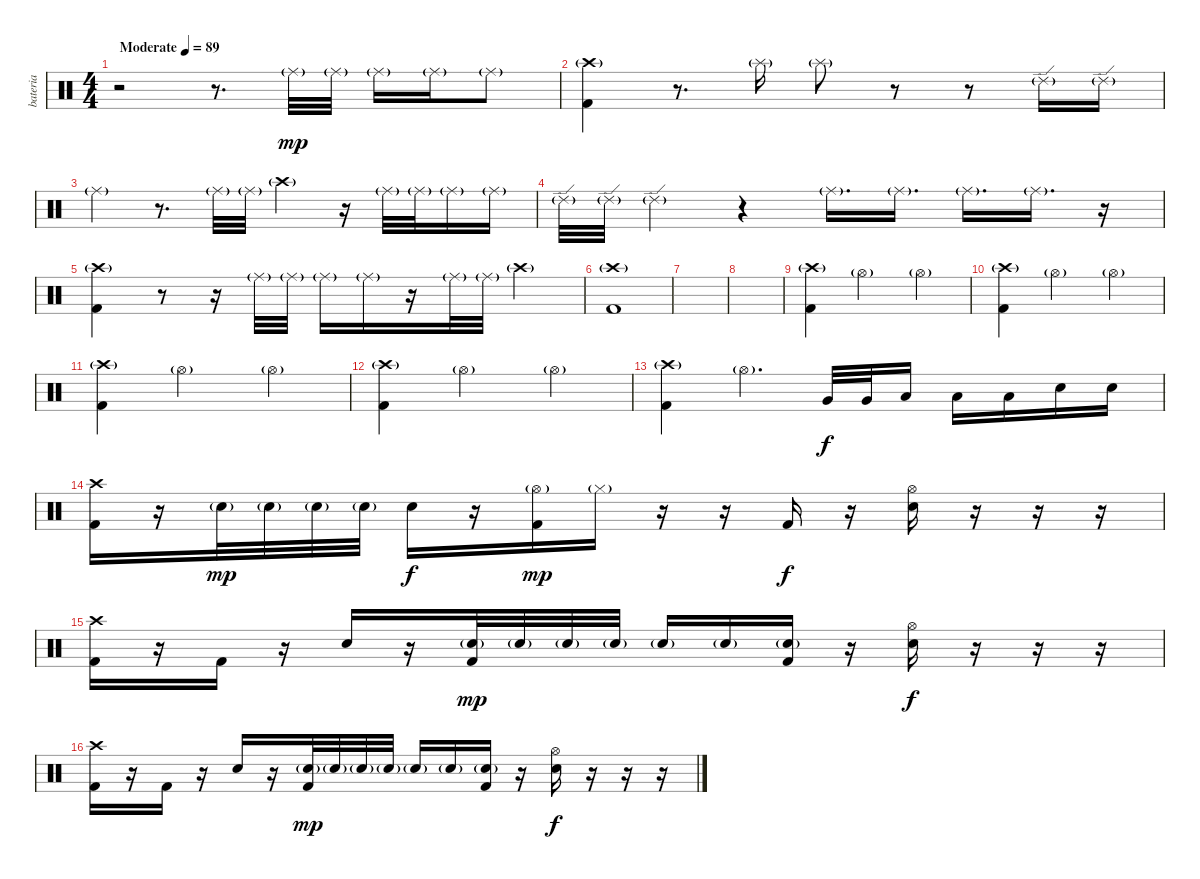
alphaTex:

\track ("bateria" "bateria") {instrument percussion}
\staff {score}
\articulation defaults
\ts (4 4)
\tempo (89 "Moderate")
\clef neutral
\ks c
r.2{dy mp} r.8{d} "Ride (middle)"{g}.32 "Ride (middle)"{g}.32 "Ride (middle)"{g}.16 "Ride (middle)"{g}.16 "Ride (middle)"{g}.8 |
("Crash high (hit)"{g} "Kick (hit) 2").4 r.8{d} "Splash (hit)"{g}.16 "Splash (hit)"{g}.8 r.8 r.8 "Ride (edge) 2"{g}.16 "Ride (edge) 2"{g}.16 |
"Ride (middle)"{g}.4 r.8{d} "Ride (middle)"{g}.32 "Ride (middle)"{g}.32 "Crash high (hit)"{g}.4 r.16 "Ride (middle)"{g}.32 "Ride (middle)"{g}.32 "Ride (middle)"{g}.16 "Ride (middle)"{g}.16 |
"Ride (edge) 2"{g}.32 "Ride (edge) 2"{g}.32 "Ride (edge) 2"{g}.4 r.4 "Ride (middle)"{g}.16{d} "Ride (middle)"{g}.16{d} "Ride (middle)"{g}.16{d} "Ride (middle)"{g}.16{d} r.16 |
("Crash high (hit)"{g} "Kick (hit) 2").4 r.8 r.16 "Ride (middle)"{g}.32 "Ride (middle)"{g}.32 "Ride (middle)"{g}.16 "Ride (middle)"{g}.16 r.16 "Ride (middle)"{g}.32 "Ride (middle)"{g}.32 "Crash high (hit)"{g}.4 |
("Crash high (hit)"{g} "Kick (hit) 2").1 |
|
|
("Crash high (hit)"{g} "Kick (hit) 2").4 "Hi-Hat (open)"{g}.2 "Hi-Hat (open)"{g}.4 |
("Crash high (hit)"{g} "Kick (hit) 2").4 "Hi-Hat (open)"{g}.2 "Hi-Hat (open)"{g}.4 |
("Crash high (hit)"{g} "Kick (hit) 2").4 "Hi-Hat (open)"{g}.2 "Hi-Hat (open)"{g}.4 |
("Crash high (hit)"{g} "Kick (hit) 2").4 "Hi-Hat (open)"{g}.2 "Hi-Hat (open)"{g}.4 |
("Crash high (hit)"{g} "Kick (hit) 2").4 "Hi-Hat (open)"{g}.4{d} "Very Low Tom (hit)".32{dy f} "Very Low Tom (hit)".32 "Low Floor Tom (hit)".16 "Low Floor Tom (hit)".16 "Low Tom (hit)".16 "Electric Snare (hit)".16 "Electric Snare (hit)".16 |
("Crash high (hit)" "Kick (hit) 2").16 r.16 "Electric Snare (hit)"{g}.32{dy mp} "Electric Snare (hit)"{g}.32 "Electric Snare (hit)"{g}.32 "Electric Snare (hit)"{g}.32 "Electric Snare (hit)".16{dy f} r.16 ("Hi-Hat (open)"{g} "Kick (hit) 2").16{dy mp} "Hi-Hat (closed)"{g}.16 r.16 r.16 "Kick (hit) 2".16{dy f} r.16 ("Hi-Hat (open)" "Electric Snare (hit)").16 r.16 r.16 r.16 |
("Crash high (hit)" "Kick (hit) 2").16 r.16 "Kick (hit) 2".16 r.16 "Electric Snare (hit)".16 r.16 ("Electric Snare (hit)"{g} "Kick (hit) 2").32{dy mp} "Electric Snare (hit)"{g}.32 "Electric Snare (hit)"{g}.32 "Electric Snare (hit)"{g}.32 "Electric Snare (hit)"{g}.16 "Electric Snare (hit)"{g}.16 ("Electric Snare (hit)"{g} "Kick (hit) 2").16 r.16 ("Hi-Hat (open)" "Electric Snare (hit)").16{dy f} r.16 r.16 r.16 |
("Crash high (hit)" "Kick (hit) 2").16 r.16 "Kick (hit) 2".16 r.16 "Electric Snare (hit)".16 r.16 ("Electric Snare (hit)"{g} "Kick (hit) 2").32{dy mp} "Electric Snare (hit)"{g}.32 "Electric Snare (hit)"{g}.32 "Electric Snare (hit)"{g}.32 "Electric Snare (hit)"{g}.16 "Electric Snare (hit)"{g}.16 ("Electric Snare (hit)"{g} "Kick (hit) 2").16 r.16 ("Hi-Hat (open)" "Electric Snare (hit)").16{dy f} r.16 r.16 r.16
